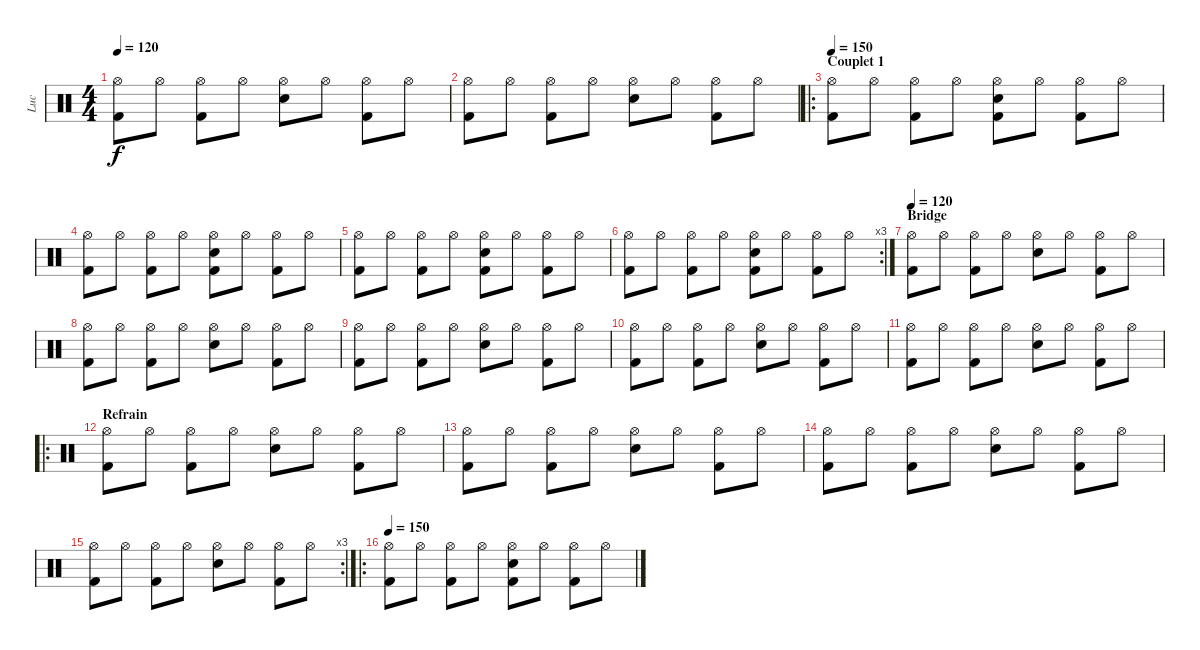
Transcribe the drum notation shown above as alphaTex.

\track ("Luc" "Luc") {instrument percussion}
\staff {score}
\articulation defaults
\ts (4 4)
\tempo 120
\clef neutral
\ks c
("Hi-Hat (open)" "Kick (hit) 2").8{dy f} "Hi-Hat (open)".8 ("Hi-Hat (open)" "Kick (hit) 2").8 "Hi-Hat (open)".8 ("Hi-Hat (open)" "Snare (hit) 2").8 "Hi-Hat (open)".8 ("Hi-Hat (open)" "Kick (hit) 2").8 "Hi-Hat (open)".8 |
("Hi-Hat (open)" "Kick (hit) 2").8 "Hi-Hat (open)".8 ("Hi-Hat (open)" "Kick (hit) 2").8 "Hi-Hat (open)".8 ("Hi-Hat (open)" "Snare (hit) 2").8 "Hi-Hat (open)".8 ("Hi-Hat (open)" "Kick (hit) 2").8 "Hi-Hat (open)".8 |
\ro
\section ("" "Couplet 1")
\tempo 150
("Hi-Hat (open)" "Kick (hit) 2").8 "Hi-Hat (open)".8 ("Hi-Hat (open)" "Kick (hit) 2").8 "Hi-Hat (open)".8 ("Hi-Hat (open)" "Snare (hit) 2" "Kick (hit) 2").8 "Hi-Hat (open)".8 ("Hi-Hat (open)" "Kick (hit) 2").8 "Hi-Hat (open)".8 |
("Hi-Hat (open)" "Kick (hit) 2").8 "Hi-Hat (open)".8 ("Hi-Hat (open)" "Kick (hit) 2").8 "Hi-Hat (open)".8 ("Hi-Hat (open)" "Snare (hit) 2" "Kick (hit) 2").8 "Hi-Hat (open)".8 ("Hi-Hat (open)" "Kick (hit) 2").8 "Hi-Hat (open)".8 |
("Hi-Hat (open)" "Kick (hit) 2").8 "Hi-Hat (open)".8 ("Hi-Hat (open)" "Kick (hit) 2").8 "Hi-Hat (open)".8 ("Hi-Hat (open)" "Snare (hit) 2" "Kick (hit) 2").8 "Hi-Hat (open)".8 ("Hi-Hat (open)" "Kick (hit) 2").8 "Hi-Hat (open)".8 |
\rc 3
("Hi-Hat (open)" "Kick (hit) 2").8 "Hi-Hat (open)".8 ("Hi-Hat (open)" "Kick (hit) 2").8 "Hi-Hat (open)".8 ("Hi-Hat (open)" "Snare (hit) 2" "Kick (hit) 2").8 "Hi-Hat (open)".8 ("Hi-Hat (open)" "Kick (hit) 2").8 "Hi-Hat (open)".8 |
\section ("" "Bridge")
\tempo 120
("Hi-Hat (open)" "Kick (hit) 2").8 "Hi-Hat (open)".8 ("Hi-Hat (open)" "Kick (hit) 2").8 "Hi-Hat (open)".8 ("Hi-Hat (open)" "Snare (hit) 2").8 "Hi-Hat (open)".8 ("Hi-Hat (open)" "Kick (hit) 2").8 "Hi-Hat (open)".8 |
("Hi-Hat (open)" "Kick (hit) 2").8 "Hi-Hat (open)".8 ("Hi-Hat (open)" "Kick (hit) 2").8 "Hi-Hat (open)".8 ("Hi-Hat (open)" "Snare (hit) 2").8 "Hi-Hat (open)".8 ("Hi-Hat (open)" "Kick (hit) 2").8 "Hi-Hat (open)".8 |
("Hi-Hat (open)" "Kick (hit) 2").8 "Hi-Hat (open)".8 ("Hi-Hat (open)" "Kick (hit) 2").8 "Hi-Hat (open)".8 ("Hi-Hat (open)" "Snare (hit) 2").8 "Hi-Hat (open)".8 ("Hi-Hat (open)" "Kick (hit) 2").8 "Hi-Hat (open)".8 |
("Hi-Hat (open)" "Kick (hit) 2").8 "Hi-Hat (open)".8 ("Hi-Hat (open)" "Kick (hit) 2").8 "Hi-Hat (open)".8 ("Hi-Hat (open)" "Snare (hit) 2").8 "Hi-Hat (open)".8 ("Hi-Hat (open)" "Kick (hit) 2").8 "Hi-Hat (open)".8 |
("Hi-Hat (open)" "Kick (hit) 2").8 "Hi-Hat (open)".8 ("Hi-Hat (open)" "Kick (hit) 2").8 "Hi-Hat (open)".8 ("Hi-Hat (open)" "Snare (hit) 2").8 "Hi-Hat (open)".8 ("Hi-Hat (open)" "Kick (hit) 2").8 "Hi-Hat (open)".8 |
\ro
\section ("" "Refrain")
("Hi-Hat (open)" "Kick (hit) 2").8 "Hi-Hat (open)".8 ("Hi-Hat (open)" "Kick (hit) 2").8 "Hi-Hat (open)".8 ("Hi-Hat (open)" "Snare (hit) 2").8 "Hi-Hat (open)".8 ("Hi-Hat (open)" "Kick (hit) 2").8 "Hi-Hat (open)".8 |
("Hi-Hat (open)" "Kick (hit) 2").8 "Hi-Hat (open)".8 ("Hi-Hat (open)" "Kick (hit) 2").8 "Hi-Hat (open)".8 ("Hi-Hat (open)" "Snare (hit) 2").8 "Hi-Hat (open)".8 ("Hi-Hat (open)" "Kick (hit) 2").8 "Hi-Hat (open)".8 |
("Hi-Hat (open)" "Kick (hit) 2").8 "Hi-Hat (open)".8 ("Hi-Hat (open)" "Kick (hit) 2").8 "Hi-Hat (open)".8 ("Hi-Hat (open)" "Snare (hit) 2").8 "Hi-Hat (open)".8 ("Hi-Hat (open)" "Kick (hit) 2").8 "Hi-Hat (open)".8 |
\rc 3
("Hi-Hat (open)" "Kick (hit) 2").8 "Hi-Hat (open)".8 ("Hi-Hat (open)" "Kick (hit) 2").8 "Hi-Hat (open)".8 ("Hi-Hat (open)" "Snare (hit) 2").8 "Hi-Hat (open)".8 ("Hi-Hat (open)" "Kick (hit) 2").8 "Hi-Hat (open)".8 |
\ro
\tempo 150
("Hi-Hat (open)" "Kick (hit) 2").8 "Hi-Hat (open)".8 ("Hi-Hat (open)" "Kick (hit) 2").8 "Hi-Hat (open)".8 ("Hi-Hat (open)" "Snare (hit) 2" "Kick (hit) 2").8 "Hi-Hat (open)".8 ("Hi-Hat (open)" "Kick (hit) 2").8 "Hi-Hat (open)".8
